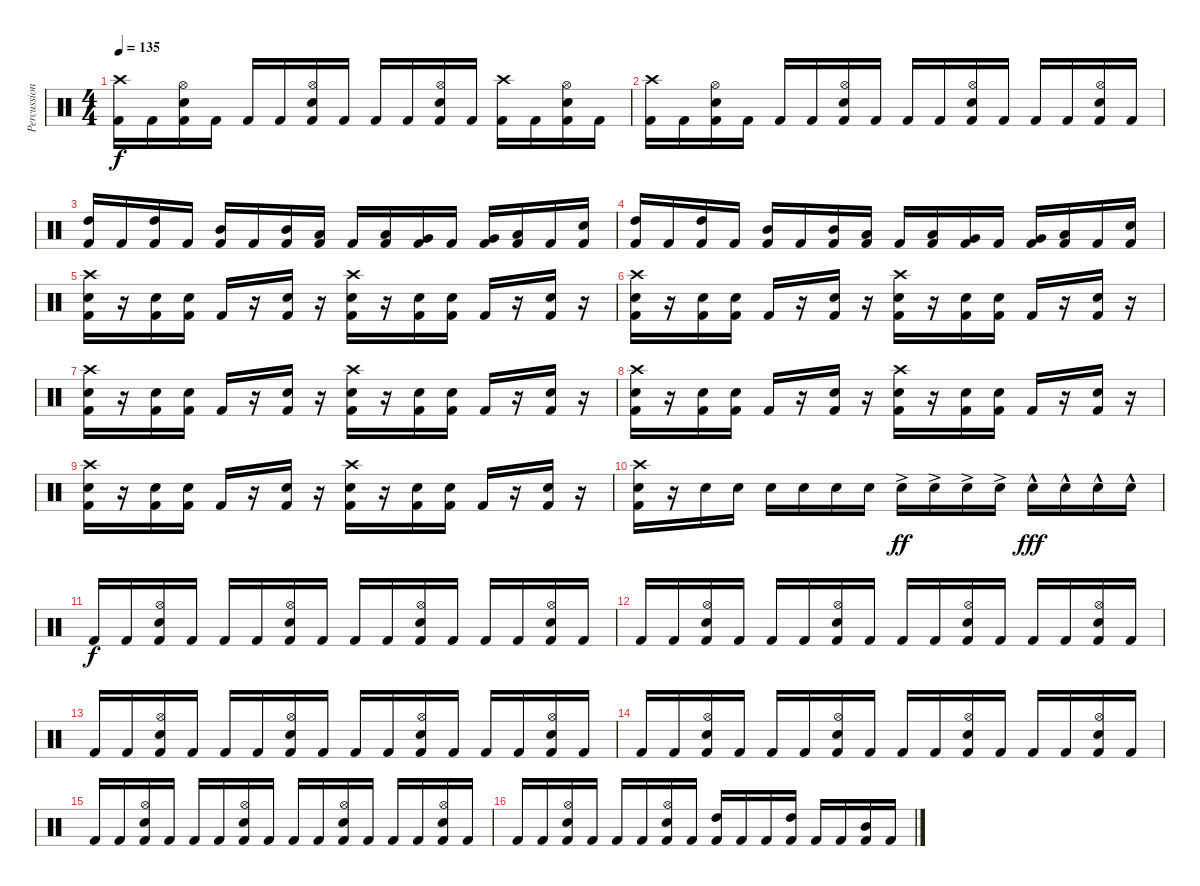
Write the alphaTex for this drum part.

\track ("Percussions" "Percussion") {instrument percussion}
\staff {score}
\articulation defaults
\ts (4 4)
\tempo 135
\clef neutral
\ks c
("Crash high (hit)" "Kick (hit) 2").16{dy f} "Kick (hit) 2".16 ("Hi-Hat (open)" "Snare (hit) 2" "Kick (hit) 2").16 "Kick (hit) 2".16 "Kick (hit) 2".16 "Kick (hit) 2".16 ("Hi-Hat (open)" "Snare (hit) 2" "Kick (hit) 2").16 "Kick (hit) 2".16 "Kick (hit) 2".16 "Kick (hit) 2".16 ("Hi-Hat (open)" "Snare (hit) 2" "Kick (hit) 2").16 "Kick (hit) 2".16 ("Crash high (hit)" "Kick (hit) 2").16 "Kick (hit) 2".16 ("Hi-Hat (open)" "Snare (hit) 2" "Kick (hit) 2").16 "Kick (hit) 2".16 |
("Crash high (hit)" "Kick (hit) 2").16 "Kick (hit) 2".16 ("Hi-Hat (open)" "Snare (hit) 2" "Kick (hit) 2").16 "Kick (hit) 2".16 "Kick (hit) 2".16 "Kick (hit) 2".16 ("Hi-Hat (open)" "Snare (hit) 2" "Kick (hit) 2").16 "Kick (hit) 2".16 "Kick (hit) 2".16 "Kick (hit) 2".16 ("Hi-Hat (open)" "Snare (hit) 2" "Kick (hit) 2").16 "Kick (hit) 2".16 "Kick (hit) 2".16 "Kick (hit) 2".16 ("Hi-Hat (open)" "Snare (hit) 2" "Kick (hit) 2").16 "Kick (hit) 2".16 |
("High Tom (hit)" "Kick (hit) 2").16 "Kick (hit) 2".16 ("High Tom (hit)" "Kick (hit) 2").16 "Kick (hit) 2".16 ("Mid Tom (hit)" "Kick (hit) 2").16 "Kick (hit) 2".16 ("Mid Tom (hit)" "Kick (hit) 2").16 ("Low Tom (hit)" "Kick (hit) 2").16 "Kick (hit) 2".16 ("Low Tom (hit)" "Kick (hit) 2").16 ("Very Low Tom (hit)" "Kick (hit) 2").16 "Kick (hit) 2".16 ("Very Low Tom (hit)" "Kick (hit) 2").16 ("Low Floor Tom (hit)" "Kick (hit) 2").16 "Kick (hit) 2".16 ("Snare (hit) 2" "Kick (hit) 2").16 |
("High Tom (hit)" "Kick (hit) 2").16 "Kick (hit) 2".16 ("High Tom (hit)" "Kick (hit) 2").16 "Kick (hit) 2".16 ("Mid Tom (hit)" "Kick (hit) 2").16 "Kick (hit) 2".16 ("Mid Tom (hit)" "Kick (hit) 2").16 ("Low Tom (hit)" "Kick (hit) 2").16 "Kick (hit) 2".16 ("Low Tom (hit)" "Kick (hit) 2").16 ("Very Low Tom (hit)" "Kick (hit) 2").16 "Kick (hit) 2".16 ("Very Low Tom (hit)" "Kick (hit) 2").16 ("Low Floor Tom (hit)" "Kick (hit) 2").16 "Kick (hit) 2".16 ("Snare (hit) 2" "Kick (hit) 2").16 |
("Crash high (hit)" "Snare (hit) 2" "Kick (hit) 2").16 r.16 ("Snare (hit) 2" "Kick (hit) 2").16 ("Snare (hit) 2" "Kick (hit) 2").16 "Kick (hit) 2".16 r.16 ("Snare (hit) 2" "Kick (hit) 2").16 r.16 ("Crash high (hit)" "Snare (hit) 2" "Kick (hit) 2").16 r.16 ("Snare (hit) 2" "Kick (hit) 2").16 ("Snare (hit) 2" "Kick (hit) 2").16 "Kick (hit) 2".16 r.16 ("Snare (hit) 2" "Kick (hit) 2").16 r.16 |
("Crash high (hit)" "Snare (hit) 2" "Kick (hit) 2").16 r.16 ("Snare (hit) 2" "Kick (hit) 2").16 ("Snare (hit) 2" "Kick (hit) 2").16 "Kick (hit) 2".16 r.16 ("Snare (hit) 2" "Kick (hit) 2").16 r.16 ("Crash high (hit)" "Snare (hit) 2" "Kick (hit) 2").16 r.16 ("Snare (hit) 2" "Kick (hit) 2").16 ("Snare (hit) 2" "Kick (hit) 2").16 "Kick (hit) 2".16 r.16 ("Snare (hit) 2" "Kick (hit) 2").16 r.16 |
("Crash high (hit)" "Snare (hit) 2" "Kick (hit) 2").16 r.16 ("Snare (hit) 2" "Kick (hit) 2").16 ("Snare (hit) 2" "Kick (hit) 2").16 "Kick (hit) 2".16 r.16 ("Snare (hit) 2" "Kick (hit) 2").16 r.16 ("Crash high (hit)" "Snare (hit) 2" "Kick (hit) 2").16 r.16 ("Snare (hit) 2" "Kick (hit) 2").16 ("Snare (hit) 2" "Kick (hit) 2").16 "Kick (hit) 2".16 r.16 ("Snare (hit) 2" "Kick (hit) 2").16 r.16 |
("Crash high (hit)" "Snare (hit) 2" "Kick (hit) 2").16 r.16 ("Snare (hit) 2" "Kick (hit) 2").16 ("Snare (hit) 2" "Kick (hit) 2").16 "Kick (hit) 2".16 r.16 ("Snare (hit) 2" "Kick (hit) 2").16 r.16 ("Crash high (hit)" "Snare (hit) 2" "Kick (hit) 2").16 r.16 ("Snare (hit) 2" "Kick (hit) 2").16 ("Snare (hit) 2" "Kick (hit) 2").16 "Kick (hit) 2".16 r.16 ("Snare (hit) 2" "Kick (hit) 2").16 r.16 |
("Crash high (hit)" "Snare (hit) 2" "Kick (hit) 2").16 r.16 ("Snare (hit) 2" "Kick (hit) 2").16 ("Snare (hit) 2" "Kick (hit) 2").16 "Kick (hit) 2".16 r.16 ("Snare (hit) 2" "Kick (hit) 2").16 r.16 ("Crash high (hit)" "Snare (hit) 2" "Kick (hit) 2").16 r.16 ("Snare (hit) 2" "Kick (hit) 2").16 ("Snare (hit) 2" "Kick (hit) 2").16 "Kick (hit) 2".16 r.16 ("Snare (hit) 2" "Kick (hit) 2").16 r.16 |
("Crash high (hit)" "Snare (hit) 2" "Kick (hit) 2").16 r.16 "Snare (hit) 2".16 "Snare (hit) 2".16 "Snare (hit) 2".16 "Snare (hit) 2".16 "Snare (hit) 2".16 "Snare (hit) 2".16 "Snare (hit) 2"{ac}.16{dy ff} "Snare (hit) 2"{ac}.16 "Snare (hit) 2"{ac}.16 "Snare (hit) 2"{ac}.16 "Snare (hit) 2"{hac}.16{dy fff} "Snare (hit) 2"{hac}.16 "Snare (hit) 2"{hac}.16 "Snare (hit) 2"{hac}.16 |
"Kick (hit) 2".16{dy f} "Kick (hit) 2".16 ("Hi-Hat (open)" "Snare (hit) 2" "Kick (hit) 2").16 "Kick (hit) 2".16 "Kick (hit) 2".16 "Kick (hit) 2".16 ("Hi-Hat (open)" "Snare (hit) 2" "Kick (hit) 2").16 "Kick (hit) 2".16 "Kick (hit) 2".16 "Kick (hit) 2".16 ("Hi-Hat (open)" "Snare (hit) 2" "Kick (hit) 2").16 "Kick (hit) 2".16 "Kick (hit) 2".16 "Kick (hit) 2".16 ("Hi-Hat (open)" "Snare (hit) 2" "Kick (hit) 2").16 "Kick (hit) 2".16 |
"Kick (hit) 2".16 "Kick (hit) 2".16 ("Hi-Hat (open)" "Snare (hit) 2" "Kick (hit) 2").16 "Kick (hit) 2".16 "Kick (hit) 2".16 "Kick (hit) 2".16 ("Hi-Hat (open)" "Snare (hit) 2" "Kick (hit) 2").16 "Kick (hit) 2".16 "Kick (hit) 2".16 "Kick (hit) 2".16 ("Hi-Hat (open)" "Snare (hit) 2" "Kick (hit) 2").16 "Kick (hit) 2".16 "Kick (hit) 2".16 "Kick (hit) 2".16 ("Hi-Hat (open)" "Snare (hit) 2" "Kick (hit) 2").16 "Kick (hit) 2".16 |
"Kick (hit) 2".16 "Kick (hit) 2".16 ("Hi-Hat (open)" "Snare (hit) 2" "Kick (hit) 2").16 "Kick (hit) 2".16 "Kick (hit) 2".16 "Kick (hit) 2".16 ("Hi-Hat (open)" "Snare (hit) 2" "Kick (hit) 2").16 "Kick (hit) 2".16 "Kick (hit) 2".16 "Kick (hit) 2".16 ("Hi-Hat (open)" "Snare (hit) 2" "Kick (hit) 2").16 "Kick (hit) 2".16 "Kick (hit) 2".16 "Kick (hit) 2".16 ("Hi-Hat (open)" "Snare (hit) 2" "Kick (hit) 2").16 "Kick (hit) 2".16 |
"Kick (hit) 2".16 "Kick (hit) 2".16 ("Hi-Hat (open)" "Snare (hit) 2" "Kick (hit) 2").16 "Kick (hit) 2".16 "Kick (hit) 2".16 "Kick (hit) 2".16 ("Hi-Hat (open)" "Snare (hit) 2" "Kick (hit) 2").16 "Kick (hit) 2".16 "Kick (hit) 2".16 "Kick (hit) 2".16 ("Hi-Hat (open)" "Snare (hit) 2" "Kick (hit) 2").16 "Kick (hit) 2".16 "Kick (hit) 2".16 "Kick (hit) 2".16 ("Hi-Hat (open)" "Snare (hit) 2" "Kick (hit) 2").16 "Kick (hit) 2".16 |
"Kick (hit) 2".16 "Kick (hit) 2".16 ("Hi-Hat (open)" "Snare (hit) 2" "Kick (hit) 2").16 "Kick (hit) 2".16 "Kick (hit) 2".16 "Kick (hit) 2".16 ("Hi-Hat (open)" "Snare (hit) 2" "Kick (hit) 2").16 "Kick (hit) 2".16 "Kick (hit) 2".16 "Kick (hit) 2".16 ("Hi-Hat (open)" "Snare (hit) 2" "Kick (hit) 2").16 "Kick (hit) 2".16 "Kick (hit) 2".16 "Kick (hit) 2".16 ("Hi-Hat (open)" "Snare (hit) 2" "Kick (hit) 2").16 "Kick (hit) 2".16 |
"Kick (hit) 2".16 "Kick (hit) 2".16 ("Hi-Hat (open)" "Snare (hit) 2" "Kick (hit) 2").16 "Kick (hit) 2".16 "Kick (hit) 2".16 "Kick (hit) 2".16 ("Hi-Hat (open)" "Snare (hit) 2" "Kick (hit) 2").16 "Kick (hit) 2".16 ("High Tom (hit)" "Kick (hit) 2").16 "Kick (hit) 2".16 "Kick (hit) 2".16 ("High Tom (hit)" "Kick (hit) 2").16 "Kick (hit) 2".16 "Kick (hit) 2".16 ("Mid Tom (hit)" "Kick (hit) 2").16 "Kick (hit) 2".16
